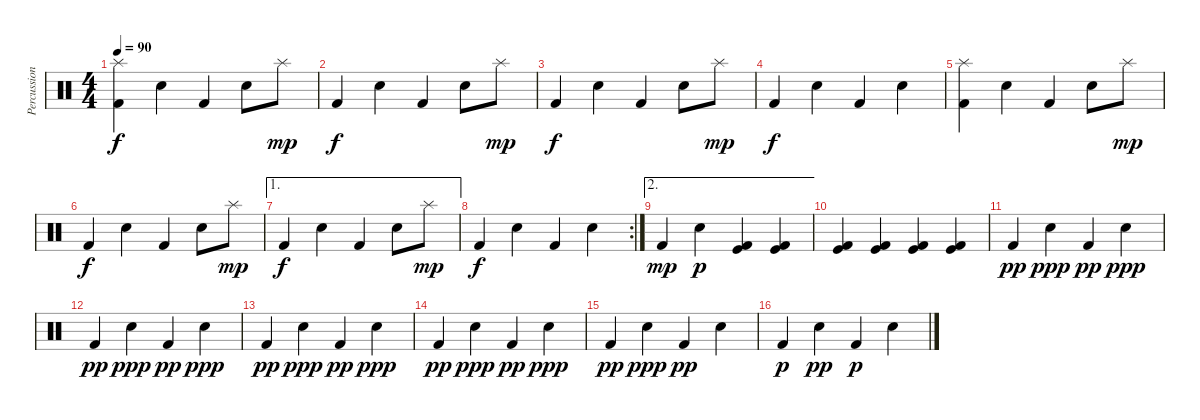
\track ("Percussion" "Percussion") {instrument percussion}
\staff {score}
\articulation defaults
\ts (4 4)
\tempo 90
\clef neutral
\ks c
("Kick (hit) 2" "Splash (hit)").4{dy f} "Electric Snare (hit)".4 "Kick (hit) 2".4 "Electric Snare (hit)".8 "Splash (hit)".8{dy mp} |
"Kick (hit) 2".4{dy f} "Electric Snare (hit)".4 "Kick (hit) 2".4 "Electric Snare (hit)".8 "Splash (hit)".8{dy mp} |
"Kick (hit) 2".4{dy f} "Electric Snare (hit)".4 "Kick (hit) 2".4 "Electric Snare (hit)".8 "Splash (hit)".8{dy mp} |
"Kick (hit) 2".4{dy f} "Electric Snare (hit)".4 "Kick (hit) 2".4 "Electric Snare (hit)".4 |
("Kick (hit) 2" "Splash (hit)").4 "Electric Snare (hit)".4 "Kick (hit) 2".4 "Electric Snare (hit)".8 "Splash (hit)".8{dy mp} |
"Kick (hit) 2".4{dy f} "Electric Snare (hit)".4 "Kick (hit) 2".4 "Electric Snare (hit)".8 "Splash (hit)".8{dy mp} |
\ae 1 "Kick (hit) 2".4{dy f} "Electric Snare (hit)".4 "Kick (hit) 2".4 "Electric Snare (hit)".8 "Splash (hit)".8{dy mp}
|
\rc 2 "Kick (hit) 2".4{dy f} "Electric Snare (hit)".4 "Kick (hit) 2".4 "Electric Snare (hit)".4
|
\ae 2 "Kick (hit) 2".4{dy mp} "Electric Snare (hit)".4{dy p}
("Kick (hit) 2" "Kick (hit)").4 ("Kick (hit) 2" "Kick (hit)").4 |
("Kick (hit) 2" "Kick (hit)").4 ("Kick (hit) 2" "Kick (hit)").4 ("Kick (hit) 2" "Kick (hit)").4 ("Kick (hit) 2" "Kick (hit)").4 |
"Kick (hit) 2".4{dy pp} "Electric Snare (hit)".4{dy ppp} "Kick (hit) 2".4{dy pp} "Electric Snare (hit)".4{dy ppp} |
"Kick (hit) 2".4{dy pp} "Electric Snare (hit)".4{dy ppp} "Kick (hit) 2".4{dy pp} "Electric Snare (hit)".4{dy ppp} |
"Kick (hit) 2".4{dy pp} "Electric Snare (hit)".4{dy ppp} "Kick (hit) 2".4{dy pp} "Electric Snare (hit)".4{dy ppp} |
"Kick (hit) 2".4{dy pp} "Electric Snare (hit)".4{dy ppp} "Kick (hit) 2".4{dy pp} "Electric Snare (hit)".4{dy ppp} |
"Kick (hit) 2".4{dy pp} "Electric Snare (hit)".4{dy ppp} "Kick (hit) 2".4{dy pp} "Electric Snare (hit)".4 |
"Kick (hit) 2".4{dy p} "Electric Snare (hit)".4{dy pp} "Kick (hit) 2".4{dy p} "Electric Snare (hit)".4
